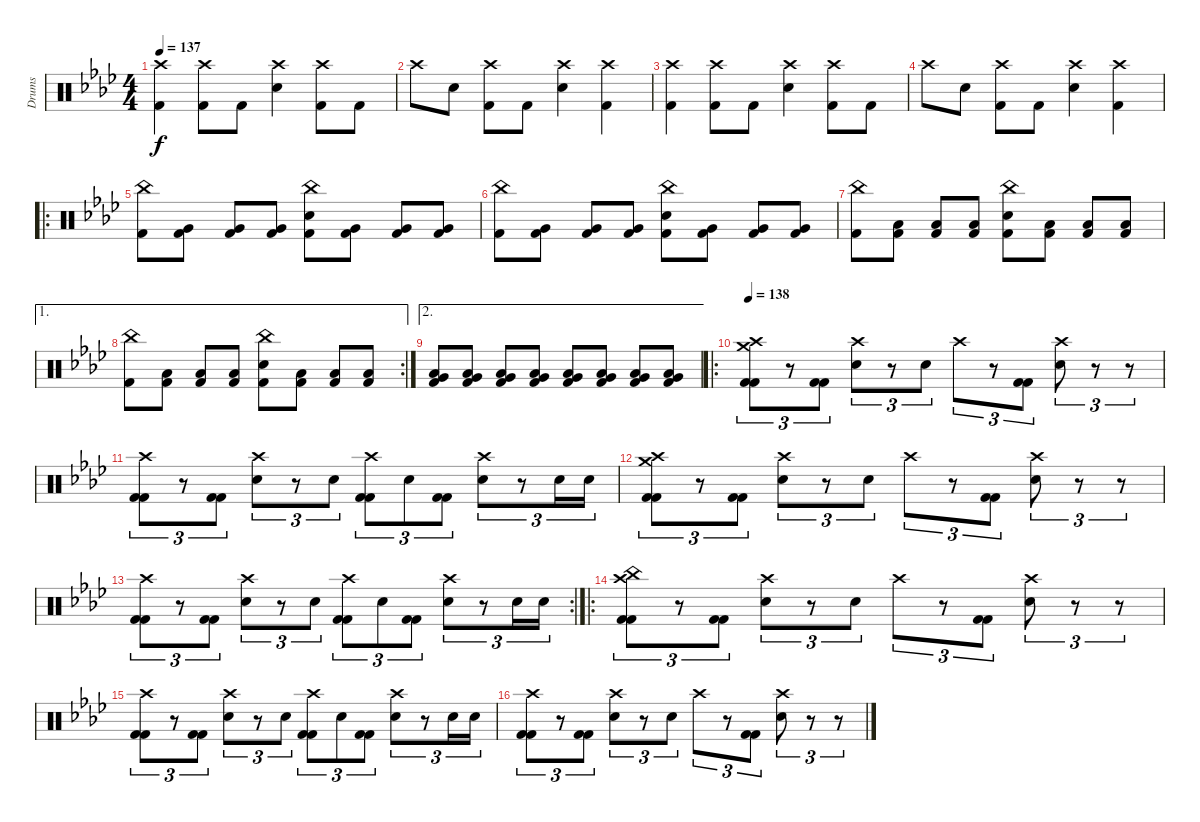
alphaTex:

\track ("Drums" "Drums") {instrument percussion}
\staff {score}
\articulation defaults
\ts (4 4)
\tempo 137
\clef neutral
\ks ab
("Crash high (hit)" "Kick (hit) 2").4{dy f} ("Crash high (hit)" "Kick (hit) 2").8 "Kick (hit) 2".8 ("Crash high (hit)" "Electric Snare (hit)").4 ("Crash high (hit)" "Kick (hit) 2").8 "Kick (hit) 2".8 |
"Crash high (hit)".8 "Electric Snare (hit)".8 ("Crash high (hit)" "Kick (hit) 2").8 "Kick (hit) 2".8 ("Crash high (hit)" "Electric Snare (hit)").4 ("Crash high (hit)" "Kick (hit) 2").4 |
("Crash high (hit)" "Kick (hit) 2").4 ("Crash high (hit)" "Kick (hit) 2").8 "Kick (hit) 2".8 ("Crash high (hit)" "Electric Snare (hit)").4 ("Crash high (hit)" "Kick (hit) 2").8 "Kick (hit) 2".8 |
"Crash high (hit)".8 "Electric Snare (hit)".8 ("Crash high (hit)" "Kick (hit) 2").8 "Kick (hit) 2".8 ("Crash high (hit)" "Electric Snare (hit)").4 ("Crash high (hit)" "Kick (hit) 2").4 |
\ro
("China (hit)" "Kick (hit) 2").8 ("Very Low Tom (hit)" "Kick (hit) 2").8 ("Very Low Tom (hit)" "Kick (hit) 2").8 ("Very Low Tom (hit)" "Kick (hit) 2").8 ("China (hit)" "Electric Snare (hit)" "Kick (hit) 2").8 ("Very Low Tom (hit)" "Kick (hit) 2").8 ("Very Low Tom (hit)" "Kick (hit) 2").8 ("Very Low Tom (hit)" "Kick (hit) 2").8 |
("China (hit)" "Kick (hit) 2").8 ("Very Low Tom (hit)" "Kick (hit) 2").8 ("Very Low Tom (hit)" "Kick (hit) 2").8 ("Very Low Tom (hit)" "Kick (hit) 2").8 ("China (hit)" "Electric Snare (hit)" "Kick (hit) 2").8 ("Very Low Tom (hit)" "Kick (hit) 2").8 ("Very Low Tom (hit)" "Kick (hit) 2").8 ("Very Low Tom (hit)" "Kick (hit) 2").8 |
("China (hit)" "Kick (hit) 2").8 ("Low Floor Tom (hit)" "Kick (hit) 2").8 ("Low Floor Tom (hit)" "Kick (hit) 2").8 ("Low Floor Tom (hit)" "Kick (hit) 2").8 ("China (hit)" "Electric Snare (hit)" "Kick (hit) 2").8 ("Low Floor Tom (hit)" "Kick (hit) 2").8 ("Low Floor Tom (hit)" "Kick (hit) 2").8 ("Low Floor Tom (hit)" "Kick (hit) 2").8 |
\ae 1
\rc 2
("China (hit)" "Kick (hit) 2").8 ("Low Floor Tom (hit)" "Kick (hit) 2").8 ("Low Floor Tom (hit)" "Kick (hit) 2").8 ("Low Floor Tom (hit)" "Kick (hit) 2").8 ("China (hit)" "Electric Snare (hit)" "Kick (hit) 2").8 ("Low Floor Tom (hit)" "Kick (hit) 2").8 ("Low Floor Tom (hit)" "Kick (hit) 2").8 ("Low Floor Tom (hit)" "Kick (hit) 2").8 |
\ae 2
("Very Low Tom (hit)" "Low Floor Tom (hit)" "Kick (hit) 2").8 ("Very Low Tom (hit)" "Low Floor Tom (hit)" "Kick (hit) 2").8 ("Very Low Tom (hit)" "Low Floor Tom (hit)" "Kick (hit) 2").8 ("Very Low Tom (hit)" "Low Floor Tom (hit)" "Kick (hit) 2").8 ("Very Low Tom (hit)" "Low Floor Tom (hit)" "Kick (hit) 2").8 ("Very Low Tom (hit)" "Low Floor Tom (hit)" "Kick (hit) 2").8 ("Very Low Tom (hit)" "Low Floor Tom (hit)" "Kick (hit) 2").8 ("Very Low Tom (hit)" "Low Floor Tom (hit)" "Kick (hit) 2").8 |
\ro
\tempo 138
("Crash high (hit)" "Crash medium (hit)" "Kick (hit) 2" "Kick (hit) 2").8{tu (3 2)} r.8{tu (3 2)} ("Kick (hit) 2" "Kick (hit) 2").8{tu (3 2)} ("Crash high (hit)" "Electric Snare (hit)").8{tu (3 2)} r.8{tu (3 2)} "Electric Snare (hit)".8{tu (3 2)} "Crash high (hit)".8{tu (3 2)} r.8{tu (3 2)} ("Kick (hit) 2" "Kick (hit) 2").8{tu (3 2)} ("Crash high (hit)" "Electric Snare (hit)").8{tu (3 2)} r.8{tu (3 2)} r.8{tu (3 2)} |
("Crash high (hit)" "Kick (hit) 2" "Kick (hit) 2").8{tu (3 2)} r.8{tu (3 2)} ("Kick (hit) 2" "Kick (hit) 2").8{tu (3 2)} ("Crash high (hit)" "Electric Snare (hit)").8{tu (3 2)} r.8{tu (3 2)} "Electric Snare (hit)".8{tu (3 2)} ("Crash high (hit)" "Kick (hit) 2" "Kick (hit) 2").8{tu (3 2)} "Electric Snare (hit)".8{tu (3 2)} ("Kick (hit) 2" "Kick (hit) 2").8{tu (3 2)} ("Crash high (hit)" "Electric Snare (hit)").8{tu (3 2)} r.8{tu (3 2)} "Electric Snare (hit)".16{tu (3 2)} "Electric Snare (hit)".16{tu (3 2)} |
("Crash high (hit)" "Crash medium (hit)" "Kick (hit) 2" "Kick (hit) 2").8{tu (3 2)} r.8{tu (3 2)} ("Kick (hit) 2" "Kick (hit) 2").8{tu (3 2)} ("Crash high (hit)" "Electric Snare (hit)").8{tu (3 2)} r.8{tu (3 2)} "Electric Snare (hit)".8{tu (3 2)} "Crash high (hit)".8{tu (3 2)} r.8{tu (3 2)} ("Kick (hit) 2" "Kick (hit) 2").8{tu (3 2)} ("Crash high (hit)" "Electric Snare (hit)").8{tu (3 2)} r.8{tu (3 2)} r.8{tu (3 2)} |
\rc 2
("Crash high (hit)" "Kick (hit) 2" "Kick (hit) 2").8{tu (3 2)} r.8{tu (3 2)} ("Kick (hit) 2" "Kick (hit) 2").8{tu (3 2)} ("Crash high (hit)" "Electric Snare (hit)").8{tu (3 2)} r.8{tu (3 2)} "Electric Snare (hit)".8{tu (3 2)} ("Crash high (hit)" "Kick (hit) 2" "Kick (hit) 2").8{tu (3 2)} "Electric Snare (hit)".8{tu (3 2)} ("Kick (hit) 2" "Kick (hit) 2").8{tu (3 2)} ("Crash high (hit)" "Electric Snare (hit)").8{tu (3 2)} r.8{tu (3 2)} "Electric Snare (hit)".16{tu (3 2)} "Electric Snare (hit)".16{tu (3 2)} |
\ro
("China (hit)" "Crash high (hit)" "Kick (hit) 2" "Kick (hit) 2").8{tu (3 2)} r.8{tu (3 2)} ("Kick (hit) 2" "Kick (hit) 2").8{tu (3 2)} ("Crash high (hit)" "Electric Snare (hit)").8{tu (3 2)} r.8{tu (3 2)} "Electric Snare (hit)".8{tu (3 2)} "Crash high (hit)".8{tu (3 2)} r.8{tu (3 2)} ("Kick (hit) 2" "Kick (hit) 2").8{tu (3 2)} ("Crash high (hit)" "Electric Snare (hit)").8{tu (3 2)} r.8{tu (3 2)} r.8{tu (3 2)} |
("Crash high (hit)" "Kick (hit) 2" "Kick (hit) 2").8{tu (3 2)} r.8{tu (3 2)} ("Kick (hit) 2" "Kick (hit) 2").8{tu (3 2)} ("Crash high (hit)" "Electric Snare (hit)").8{tu (3 2)} r.8{tu (3 2)} "Electric Snare (hit)".8{tu (3 2)} ("Crash high (hit)" "Kick (hit) 2" "Kick (hit) 2").8{tu (3 2)} "Electric Snare (hit)".8{tu (3 2)} ("Kick (hit) 2" "Kick (hit) 2").8{tu (3 2)} ("Crash high (hit)" "Electric Snare (hit)").8{tu (3 2)} r.8{tu (3 2)} "Electric Snare (hit)".16{tu (3 2)} "Electric Snare (hit)".16{tu (3 2)} |
("Crash high (hit)" "Kick (hit) 2" "Kick (hit) 2").8{tu (3 2)} r.8{tu (3 2)} ("Kick (hit) 2" "Kick (hit) 2").8{tu (3 2)} ("Crash high (hit)" "Electric Snare (hit)").8{tu (3 2)} r.8{tu (3 2)} "Electric Snare (hit)".8{tu (3 2)} "Crash high (hit)".8{tu (3 2)} r.8{tu (3 2)} ("Kick (hit) 2" "Kick (hit) 2").8{tu (3 2)} ("Crash high (hit)" "Electric Snare (hit)").8{tu (3 2)} r.8{tu (3 2)} r.8{tu (3 2)}
